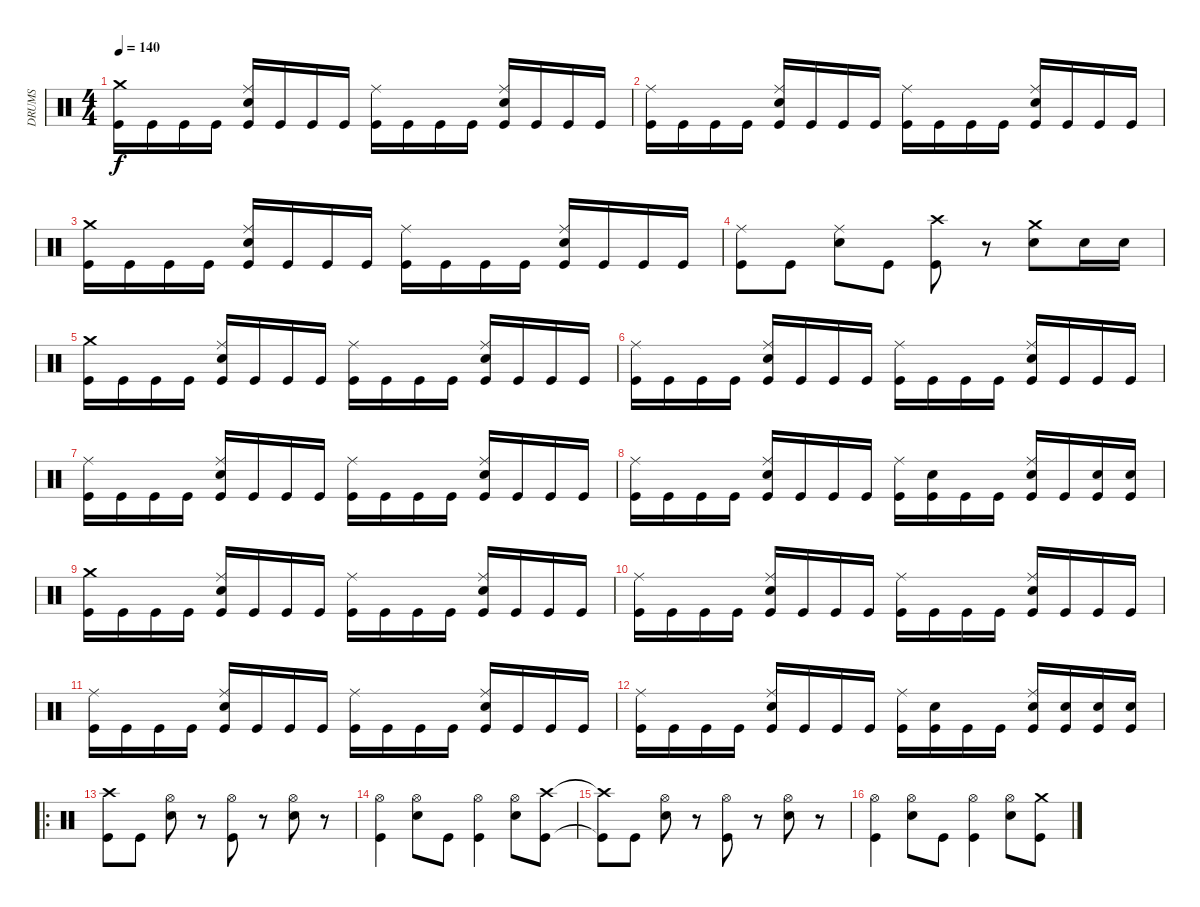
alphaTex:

\track ("DRUMS" "DRUMS") {instrument percussion}
\staff {score}
\articulation defaults
\ts (4 4)
\tempo 140
\clef neutral
\ks c
("Crash medium (hit)" "Kick (hit)").16{dy f} "Kick (hit)".16 "Kick (hit)".16 "Kick (hit)".16 ("Ride (middle)" "Electric Snare (hit)" "Kick (hit)").16 "Kick (hit)".16 "Kick (hit)".16 "Kick (hit)".16 ("Ride (middle)" "Kick (hit)").16 "Kick (hit)".16 "Kick (hit)".16 "Kick (hit)".16 ("Ride (middle)" "Electric Snare (hit)" "Kick (hit)").16 "Kick (hit)".16 "Kick (hit)".16 "Kick (hit)".16 |
("Ride (middle)" "Kick (hit)").16 "Kick (hit)".16 "Kick (hit)".16 "Kick (hit)".16 ("Ride (middle)" "Electric Snare (hit)" "Kick (hit)").16 "Kick (hit)".16 "Kick (hit)".16 "Kick (hit)".16 ("Ride (middle)" "Kick (hit)").16 "Kick (hit)".16 "Kick (hit)".16 "Kick (hit)".16 ("Ride (middle)" "Electric Snare (hit)" "Kick (hit)").16 "Kick (hit)".16 "Kick (hit)".16 "Kick (hit)".16 |
("Crash medium (hit)" "Kick (hit)").16 "Kick (hit)".16 "Kick (hit)".16 "Kick (hit)".16 ("Ride (middle)" "Electric Snare (hit)" "Kick (hit)").16 "Kick (hit)".16 "Kick (hit)".16 "Kick (hit)".16 ("Ride (middle)" "Kick (hit)").16 "Kick (hit)".16 "Kick (hit)".16 "Kick (hit)".16 ("Ride (middle)" "Electric Snare (hit)" "Kick (hit)").16 "Kick (hit)".16 "Kick (hit)".16 "Kick (hit)".16 |
("Ride (middle)" "Kick (hit)").8 "Kick (hit)".8 ("Ride (middle)" "Electric Snare (hit)").8 "Kick (hit)".8 ("Crash high (hit)" "Kick (hit)").8 r.8 ("Crash medium (hit)" "Electric Snare (hit)").8 "Electric Snare (hit)".16 "Electric Snare (hit)".16 |
("Crash medium (hit)" "Kick (hit)").16 "Kick (hit)".16 "Kick (hit)".16 "Kick (hit)".16 ("Ride (middle)" "Electric Snare (hit)" "Kick (hit)").16 "Kick (hit)".16 "Kick (hit)".16 "Kick (hit)".16 ("Ride (middle)" "Kick (hit)").16 "Kick (hit)".16 "Kick (hit)".16 "Kick (hit)".16 ("Ride (middle)" "Electric Snare (hit)" "Kick (hit)").16 "Kick (hit)".16 "Kick (hit)".16 "Kick (hit)".16 |
("Ride (middle)" "Kick (hit)").16 "Kick (hit)".16 "Kick (hit)".16 "Kick (hit)".16 ("Ride (middle)" "Electric Snare (hit)" "Kick (hit)").16 "Kick (hit)".16 "Kick (hit)".16 "Kick (hit)".16 ("Ride (middle)" "Kick (hit)").16 "Kick (hit)".16 "Kick (hit)".16 "Kick (hit)".16 ("Ride (middle)" "Electric Snare (hit)" "Kick (hit)").16 "Kick (hit)".16 "Kick (hit)".16 "Kick (hit)".16 |
("Ride (middle)" "Kick (hit)").16 "Kick (hit)".16 "Kick (hit)".16 "Kick (hit)".16 ("Ride (middle)" "Electric Snare (hit)" "Kick (hit)").16 "Kick (hit)".16 "Kick (hit)".16 "Kick (hit)".16 ("Ride (middle)" "Kick (hit)").16 "Kick (hit)".16 "Kick (hit)".16 "Kick (hit)".16 ("Ride (middle)" "Electric Snare (hit)" "Kick (hit)").16 "Kick (hit)".16 "Kick (hit)".16 "Kick (hit)".16 |
("Ride (middle)" "Kick (hit)").16 "Kick (hit)".16 "Kick (hit)".16 "Kick (hit)".16 ("Ride (middle)" "Electric Snare (hit)" "Kick (hit)").16 "Kick (hit)".16 "Kick (hit)".16 "Kick (hit)".16 ("Ride (middle)" "Kick (hit)").16 ("Electric Snare (hit)" "Kick (hit)").16 "Kick (hit)".16 "Kick (hit)".16 ("Ride (middle)" "Electric Snare (hit)" "Kick (hit)").16 "Kick (hit)".16 ("Electric Snare (hit)" "Kick (hit)").16 ("Electric Snare (hit)" "Kick (hit)").16 |
("Crash medium (hit)" "Kick (hit)").16 "Kick (hit)".16 "Kick (hit)".16 "Kick (hit)".16 ("Ride (middle)" "Electric Snare (hit)" "Kick (hit)").16 "Kick (hit)".16 "Kick (hit)".16 "Kick (hit)".16 ("Ride (middle)" "Kick (hit)").16 "Kick (hit)".16 "Kick (hit)".16 "Kick (hit)".16 ("Ride (middle)" "Electric Snare (hit)" "Kick (hit)").16 "Kick (hit)".16 "Kick (hit)".16 "Kick (hit)".16 |
("Ride (middle)" "Kick (hit)").16 "Kick (hit)".16 "Kick (hit)".16 "Kick (hit)".16 ("Ride (middle)" "Electric Snare (hit)" "Kick (hit)").16 "Kick (hit)".16 "Kick (hit)".16 "Kick (hit)".16 ("Ride (middle)" "Kick (hit)").16 "Kick (hit)".16 "Kick (hit)".16 "Kick (hit)".16 ("Ride (middle)" "Electric Snare (hit)" "Kick (hit)").16 "Kick (hit)".16 "Kick (hit)".16 "Kick (hit)".16 |
("Ride (middle)" "Kick (hit)").16 "Kick (hit)".16 "Kick (hit)".16 "Kick (hit)".16 ("Ride (middle)" "Electric Snare (hit)" "Kick (hit)").16 "Kick (hit)".16 "Kick (hit)".16 "Kick (hit)".16 ("Ride (middle)" "Kick (hit)").16 "Kick (hit)".16 "Kick (hit)".16 "Kick (hit)".16 ("Ride (middle)" "Electric Snare (hit)" "Kick (hit)").16 "Kick (hit)".16 "Kick (hit)".16 "Kick (hit)".16 |
("Ride (middle)" "Kick (hit)").16 "Kick (hit)".16 "Kick (hit)".16 "Kick (hit)".16 ("Ride (middle)" "Electric Snare (hit)" "Kick (hit)").16 "Kick (hit)".16 "Kick (hit)".16 "Kick (hit)".16 ("Ride (middle)" "Kick (hit)").16 ("Electric Snare (hit)" "Kick (hit)").16 "Kick (hit)".16 "Kick (hit)".16 ("Ride (middle)" "Electric Snare (hit)" "Kick (hit)").16 ("Electric Snare (hit)" "Kick (hit)").16 ("Electric Snare (hit)" "Kick (hit)").16 ("Electric Snare (hit)" "Kick (hit)").16 |
\ro
("Crash high (hit)" "Kick (hit)").8 "Kick (hit)".8 ("Hi-Hat (open)" "Electric Snare (hit)").8 r.8 ("Hi-Hat (open)" "Kick (hit)").8 r.8 ("Hi-Hat (open)" "Electric Snare (hit)").8 r.8 |
("Hi-Hat (open)" "Kick (hit)").4 ("Hi-Hat (open)" "Electric Snare (hit)").8 "Kick (hit)".8 ("Hi-Hat (open)" "Kick (hit)").4 ("Hi-Hat (open)" "Electric Snare (hit)").8 ("Crash high (hit)" "Kick (hit)").8 |
("Crash high (hit)"{t} "Kick (hit)"{t}).8 "Kick (hit)".8 ("Hi-Hat (open)" "Electric Snare (hit)").8 r.8 ("Hi-Hat (open)" "Kick (hit)").8 r.8 ("Hi-Hat (open)" "Electric Snare (hit)").8 r.8 |
("Hi-Hat (open)" "Kick (hit)").4 ("Hi-Hat (open)" "Electric Snare (hit)").8 "Kick (hit)".8 ("Hi-Hat (open)" "Kick (hit)").4 ("Hi-Hat (open)" "Electric Snare (hit)").8 ("Crash medium (hit)" "Kick (hit)").8
